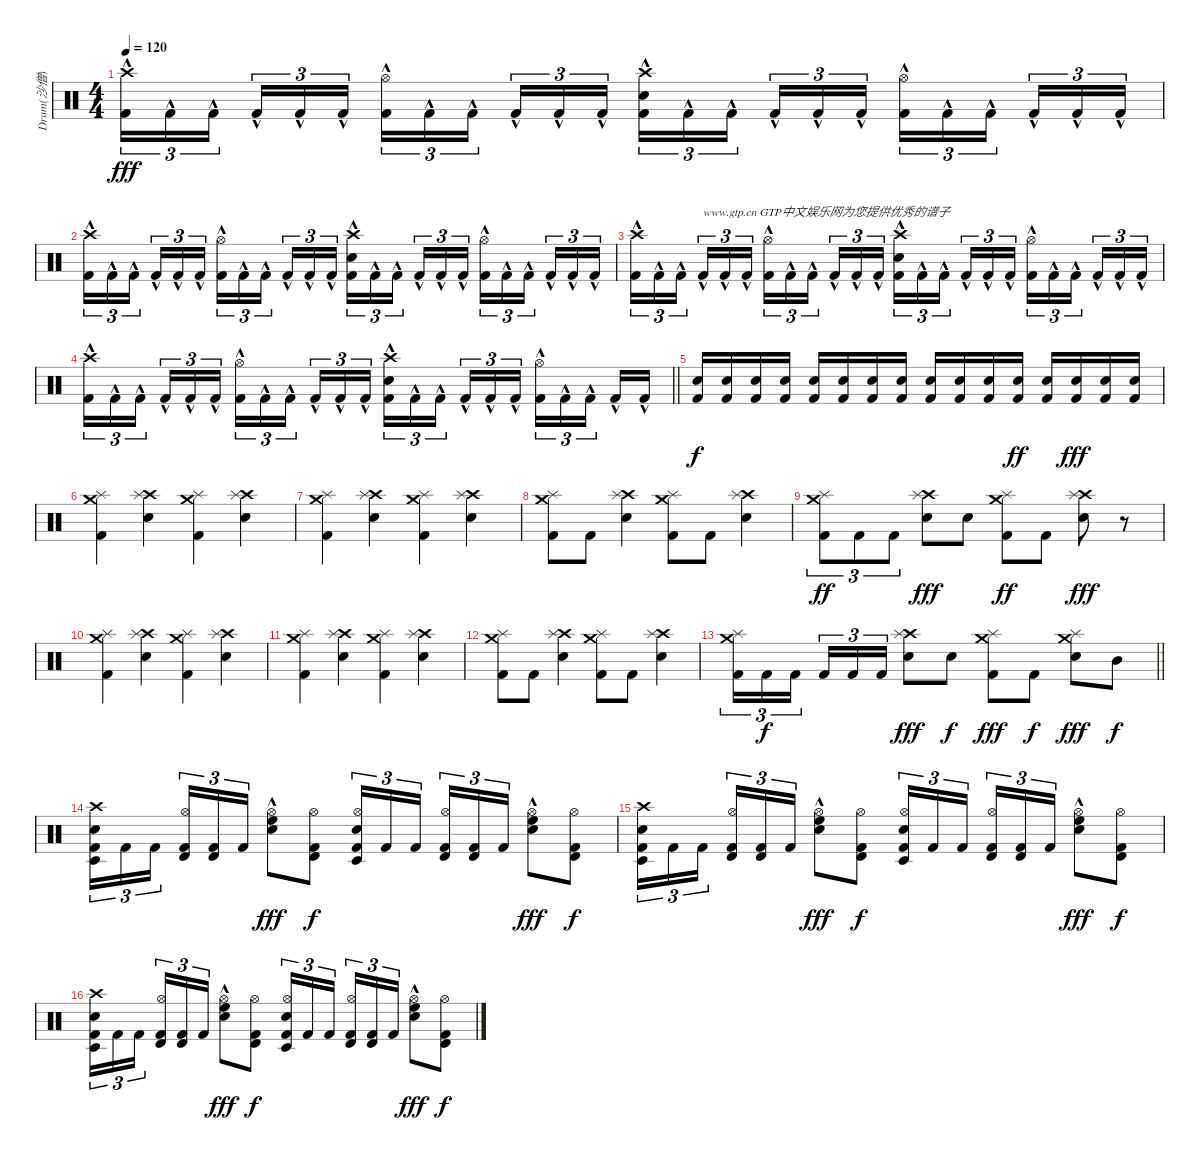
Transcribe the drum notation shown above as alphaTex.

\track ("Drum(沙僧)" "Drum(沙僧)") {instrument percussion}
\staff {score}
\articulation defaults
\ts (4 4)
\tempo 120
\clef neutral
\ks c
("Crash high (hit)" "Kick (hit) 2"{hac}).16{tu (3 2) dy fff} "Kick (hit) 2"{hac}.16{tu (3 2)} "Kick (hit) 2"{hac}.16{tu (3 2) beam splitsecondary} "Kick (hit) 2"{hac}.16{tu (3 2)} "Kick (hit) 2"{hac}.16{tu (3 2)} "Kick (hit) 2"{hac}.16{tu (3 2)} ("Hi-Hat (open)" "Kick (hit) 2"{hac}).16{tu (3 2)} "Kick (hit) 2"{hac}.16{tu (3 2)} "Kick (hit) 2"{hac}.16{tu (3 2) beam splitsecondary} "Kick (hit) 2"{hac}.16{tu (3 2)} "Kick (hit) 2"{hac}.16{tu (3 2)} "Kick (hit) 2"{hac}.16{tu (3 2)} ("Crash high (hit)" "Snare (hit) 2" "Kick (hit) 2"{hac}).16{tu (3 2)} "Kick (hit) 2"{hac}.16{tu (3 2)} "Kick (hit) 2"{hac}.16{tu (3 2) beam splitsecondary} "Kick (hit) 2"{hac}.16{tu (3 2)} "Kick (hit) 2"{hac}.16{tu (3 2)} "Kick (hit) 2"{hac}.16{tu (3 2)} ("Hi-Hat (open)" "Kick (hit) 2"{hac}).16{tu (3 2)} "Kick (hit) 2"{hac}.16{tu (3 2)} "Kick (hit) 2"{hac}.16{tu (3 2) beam splitsecondary} "Kick (hit) 2"{hac}.16{tu (3 2)} "Kick (hit) 2"{hac}.16{tu (3 2)} "Kick (hit) 2"{hac}.16{tu (3 2)} |
("Crash high (hit)" "Kick (hit) 2"{hac}).16{tu (3 2)} "Kick (hit) 2"{hac}.16{tu (3 2)} "Kick (hit) 2"{hac}.16{tu (3 2) beam splitsecondary} "Kick (hit) 2"{hac}.16{tu (3 2)} "Kick (hit) 2"{hac}.16{tu (3 2)} "Kick (hit) 2"{hac}.16{tu (3 2)} ("Hi-Hat (open)" "Kick (hit) 2"{hac}).16{tu (3 2)} "Kick (hit) 2"{hac}.16{tu (3 2)} "Kick (hit) 2"{hac}.16{tu (3 2) beam splitsecondary} "Kick (hit) 2"{hac}.16{tu (3 2)} "Kick (hit) 2"{hac}.16{tu (3 2)} "Kick (hit) 2"{hac}.16{tu (3 2)} ("Crash high (hit)" "Snare (hit) 2" "Kick (hit) 2"{hac}).16{tu (3 2)} "Kick (hit) 2"{hac}.16{tu (3 2)} "Kick (hit) 2"{hac}.16{tu (3 2) beam splitsecondary} "Kick (hit) 2"{hac}.16{tu (3 2)} "Kick (hit) 2"{hac}.16{tu (3 2)} "Kick (hit) 2"{hac}.16{tu (3 2)} ("Hi-Hat (open)" "Kick (hit) 2"{hac}).16{tu (3 2)} "Kick (hit) 2"{hac}.16{tu (3 2)} "Kick (hit) 2"{hac}.16{tu (3 2) beam splitsecondary} "Kick (hit) 2"{hac}.16{tu (3 2)} "Kick (hit) 2"{hac}.16{tu (3 2)} "Kick (hit) 2"{hac}.16{tu (3 2)} |
("Crash high (hit)" "Kick (hit) 2"{hac}).16{tu (3 2)} "Kick (hit) 2"{hac}.16{tu (3 2)} "Kick (hit) 2"{hac}.16{tu (3 2) beam splitsecondary} "Kick (hit) 2"{hac}.16{tu (3 2) txt "www.gtp.cn GTP中文娱乐网为您提供优秀的谱子"} "Kick (hit) 2"{hac}.16{tu (3 2)} "Kick (hit) 2"{hac}.16{tu (3 2)} ("Hi-Hat (open)" "Kick (hit) 2"{hac}).16{tu (3 2)} "Kick (hit) 2"{hac}.16{tu (3 2)} "Kick (hit) 2"{hac}.16{tu (3 2) beam splitsecondary} "Kick (hit) 2"{hac}.16{tu (3 2)} "Kick (hit) 2"{hac}.16{tu (3 2)} "Kick (hit) 2"{hac}.16{tu (3 2)} ("Crash high (hit)" "Snare (hit) 2" "Kick (hit) 2"{hac}).16{tu (3 2)} "Kick (hit) 2"{hac}.16{tu (3 2)} "Kick (hit) 2"{hac}.16{tu (3 2) beam splitsecondary} "Kick (hit) 2"{hac}.16{tu (3 2)} "Kick (hit) 2"{hac}.16{tu (3 2)} "Kick (hit) 2"{hac}.16{tu (3 2)} ("Hi-Hat (open)" "Kick (hit) 2"{hac}).16{tu (3 2)} "Kick (hit) 2"{hac}.16{tu (3 2)} "Kick (hit) 2"{hac}.16{tu (3 2) beam splitsecondary} "Kick (hit) 2"{hac}.16{tu (3 2)} "Kick (hit) 2"{hac}.16{tu (3 2)} "Kick (hit) 2"{hac}.16{tu (3 2)} |
\barLineRight lightlight
("Crash high (hit)" "Kick (hit) 2"{hac}).16{tu (3 2)} "Kick (hit) 2"{hac}.16{tu (3 2)} "Kick (hit) 2"{hac}.16{tu (3 2) beam splitsecondary} "Kick (hit) 2"{hac}.16{tu (3 2)} "Kick (hit) 2"{hac}.16{tu (3 2)} "Kick (hit) 2"{hac}.16{tu (3 2)} ("Hi-Hat (open)" "Kick (hit) 2"{hac}).16{tu (3 2)} "Kick (hit) 2"{hac}.16{tu (3 2)} "Kick (hit) 2"{hac}.16{tu (3 2) beam splitsecondary} "Kick (hit) 2"{hac}.16{tu (3 2)} "Kick (hit) 2"{hac}.16{tu (3 2)} "Kick (hit) 2"{hac}.16{tu (3 2)} ("Crash high (hit)" "Snare (hit) 2" "Kick (hit) 2"{hac}).16{tu (3 2)} "Kick (hit) 2"{hac}.16{tu (3 2)} "Kick (hit) 2"{hac}.16{tu (3 2) beam splitsecondary} "Kick (hit) 2"{hac}.16{tu (3 2)} "Kick (hit) 2"{hac}.16{tu (3 2)} "Kick (hit) 2"{hac}.16{tu (3 2)} ("Hi-Hat (open)" "Kick (hit) 2"{hac}).16{tu (3 2)} "Kick (hit) 2"{hac}.16{tu (3 2)} "Kick (hit) 2"{hac}.16{tu (3 2) beam splitsecondary} "Kick (hit) 2"{hac}.16 "Kick (hit) 2"{hac}.16 |
("Snare (hit) 2" "Kick (hit) 2").16{dy f} ("Snare (hit) 2" "Kick (hit) 2").16 ("Snare (hit) 2" "Kick (hit) 2").16 ("Snare (hit) 2" "Kick (hit) 2").16 ("Snare (hit) 2" "Kick (hit) 2").16 ("Snare (hit) 2" "Kick (hit) 2").16 ("Snare (hit) 2" "Kick (hit) 2").16 ("Snare (hit) 2" "Kick (hit) 2").16 ("Snare (hit) 2" "Kick (hit) 2").16 ("Snare (hit) 2" "Kick (hit) 2").16 ("Snare (hit) 2" "Kick (hit) 2").16 ("Snare (hit) 2" "Kick (hit) 2").16{dy ff} ("Snare (hit) 2" "Kick (hit) 2").16 ("Snare (hit) 2" "Kick (hit) 2").16{dy fff} ("Snare (hit) 2" "Kick (hit) 2").16 ("Snare (hit) 2" "Kick (hit) 2").16 |
("Crash medium (hit)" "Splash (hit)" "Kick (hit) 2").4 ("Crash high (hit)" "Splash (hit)" "Snare (hit) 2").4 ("Crash medium (hit)" "Splash (hit)" "Kick (hit) 2").4 ("Crash high (hit)" "Splash (hit)" "Snare (hit) 2").4 |
("Crash medium (hit)" "Splash (hit)" "Kick (hit) 2").4 ("Crash high (hit)" "Splash (hit)" "Snare (hit) 2").4 ("Crash medium (hit)" "Splash (hit)" "Kick (hit) 2").4 ("Crash high (hit)" "Splash (hit)" "Snare (hit) 2").4 |
("Crash medium (hit)" "Splash (hit)" "Kick (hit) 2").8 "Kick (hit) 2".8 ("Crash high (hit)" "Splash (hit)" "Snare (hit) 2").4 ("Crash medium (hit)" "Splash (hit)" "Kick (hit) 2").8 "Kick (hit) 2".8 ("Crash high (hit)" "Splash (hit)" "Snare (hit) 2").4 |
("Crash medium (hit)" "Splash (hit)" "Kick (hit) 2").8{tu (3 2) dy ff} "Kick (hit) 2".8{tu (3 2)} "Kick (hit) 2".8{tu (3 2)} ("Crash high (hit)" "Splash (hit)" "Snare (hit) 2").8{dy fff} "Snare (hit) 2".8 ("Crash medium (hit)" "Splash (hit)" "Kick (hit) 2").8{dy ff} "Kick (hit) 2".8 ("Crash high (hit)" "Splash (hit)" "Snare (hit) 2").8{dy fff} r.8 |
("Crash medium (hit)" "Splash (hit)" "Kick (hit) 2").4 ("Crash high (hit)" "Splash (hit)" "Snare (hit) 2").4 ("Crash medium (hit)" "Splash (hit)" "Kick (hit) 2").4 ("Crash high (hit)" "Splash (hit)" "Snare (hit) 2").4 |
("Crash medium (hit)" "Splash (hit)" "Kick (hit) 2").4 ("Crash high (hit)" "Splash (hit)" "Snare (hit) 2").4 ("Crash medium (hit)" "Splash (hit)" "Kick (hit) 2").4 ("Crash high (hit)" "Splash (hit)" "Snare (hit) 2").4 |
("Crash medium (hit)" "Splash (hit)" "Kick (hit) 2").8 "Kick (hit) 2".8 ("Crash high (hit)" "Splash (hit)" "Snare (hit) 2").4 ("Crash medium (hit)" "Splash (hit)" "Kick (hit) 2").8 "Kick (hit) 2".8 ("Crash high (hit)" "Splash (hit)" "Snare (hit) 2").4 |
\barLineRight lightlight
("Crash medium (hit)" "Splash (hit)" "Kick (hit) 2").16{tu (3 2)} "Kick (hit) 2".16{tu (3 2) dy f} "Kick (hit) 2".16{tu (3 2) beam splitsecondary} "Kick (hit) 2".16{tu (3 2)} "Kick (hit) 2".16{tu (3 2)} "Kick (hit) 2".16{tu (3 2)} ("Crash high (hit)" "Splash (hit)" "Snare (hit) 2").8{dy fff} "Snare (hit) 2".8{dy f} ("Crash medium (hit)" "Splash (hit)" "Kick (hit) 2").8{dy fff} "Kick (hit) 2".8{dy f} ("Crash medium (hit)" "Splash (hit)" "Snare (hit) 2").8{dy fff} "Mid Tom (hit)".8{dy f} |
("Kick (hit) 2" "Snare (hit) 2" "Crash high (hit)" "Timbale low (hit)").16{tu (3 2)} "Kick (hit) 2".16{tu (3 2)} "Kick (hit) 2".16{tu (3 2) beam splitsecondary} ("Kick (hit) 2" "Hi-Hat (open)" "Timbale high (hit)").16{tu (3 2)} ("Kick (hit) 2" "Timbale high (hit)").16{tu (3 2)} "Kick (hit) 2".16{tu (3 2)} ("Snare (hit) 2" "Hi-Hat (open)" "High Floor Tom (hit)"{hac}).8{dy fff} ("Kick (hit) 2" "Hi-Hat (open)" "Timbale high (hit)").8{dy f} ("Kick (hit) 2" "Snare (hit) 2" "Hi-Hat (open)" "Timbale low (hit)").16{tu (3 2)} "Kick (hit) 2".16{tu (3 2)} "Kick (hit) 2".16{tu (3 2) beam splitsecondary} ("Kick (hit) 2" "Hi-Hat (open)" "Timbale high (hit)").16{tu (3 2)} ("Kick (hit) 2" "Timbale high (hit)").16{tu (3 2)} "Kick (hit) 2".16{tu (3 2)} ("Snare (hit) 2" "Hi-Hat (open)" "High Floor Tom (hit)"{hac}).8{dy fff} ("Kick (hit) 2" "Hi-Hat (open)" "Timbale high (hit)").8{dy f} |
("Kick (hit) 2" "Snare (hit) 2" "Crash high (hit)" "Timbale low (hit)").16{tu (3 2)} "Kick (hit) 2".16{tu (3 2)} "Kick (hit) 2".16{tu (3 2) beam splitsecondary} ("Kick (hit) 2" "Hi-Hat (open)" "Timbale high (hit)").16{tu (3 2)} ("Kick (hit) 2" "Timbale high (hit)").16{tu (3 2)} "Kick (hit) 2".16{tu (3 2)} ("Snare (hit) 2" "Hi-Hat (open)" "High Floor Tom (hit)"{hac}).8{dy fff} ("Kick (hit) 2" "Hi-Hat (open)" "Timbale high (hit)").8{dy f} ("Kick (hit) 2" "Snare (hit) 2" "Hi-Hat (open)" "Timbale low (hit)").16{tu (3 2)} "Kick (hit) 2".16{tu (3 2)} "Kick (hit) 2".16{tu (3 2) beam splitsecondary} ("Kick (hit) 2" "Hi-Hat (open)" "Timbale high (hit)").16{tu (3 2)} ("Kick (hit) 2" "Timbale high (hit)").16{tu (3 2)} "Kick (hit) 2".16{tu (3 2)} ("Snare (hit) 2" "Hi-Hat (open)" "High Floor Tom (hit)"{hac}).8{dy fff} ("Kick (hit) 2" "Hi-Hat (open)" "Timbale high (hit)").8{dy f} |
("Kick (hit) 2" "Snare (hit) 2" "Crash high (hit)" "Timbale low (hit)").16{tu (3 2)} "Kick (hit) 2".16{tu (3 2)} "Kick (hit) 2".16{tu (3 2) beam splitsecondary} ("Kick (hit) 2" "Hi-Hat (open)" "Timbale high (hit)").16{tu (3 2)} ("Kick (hit) 2" "Timbale high (hit)").16{tu (3 2)} "Kick (hit) 2".16{tu (3 2)} ("Snare (hit) 2" "Hi-Hat (open)" "High Floor Tom (hit)"{hac}).8{dy fff} ("Kick (hit) 2" "Hi-Hat (open)" "Timbale high (hit)").8{dy f} ("Kick (hit) 2" "Snare (hit) 2" "Hi-Hat (open)" "Timbale low (hit)").16{tu (3 2)} "Kick (hit) 2".16{tu (3 2)} "Kick (hit) 2".16{tu (3 2) beam splitsecondary} ("Kick (hit) 2" "Hi-Hat (open)" "Timbale high (hit)").16{tu (3 2)} ("Kick (hit) 2" "Timbale high (hit)").16{tu (3 2)} "Kick (hit) 2".16{tu (3 2)} ("Snare (hit) 2" "Hi-Hat (open)" "High Floor Tom (hit)"{hac}).8{dy fff} ("Kick (hit) 2" "Hi-Hat (open)" "Timbale high (hit)").8{dy f}
